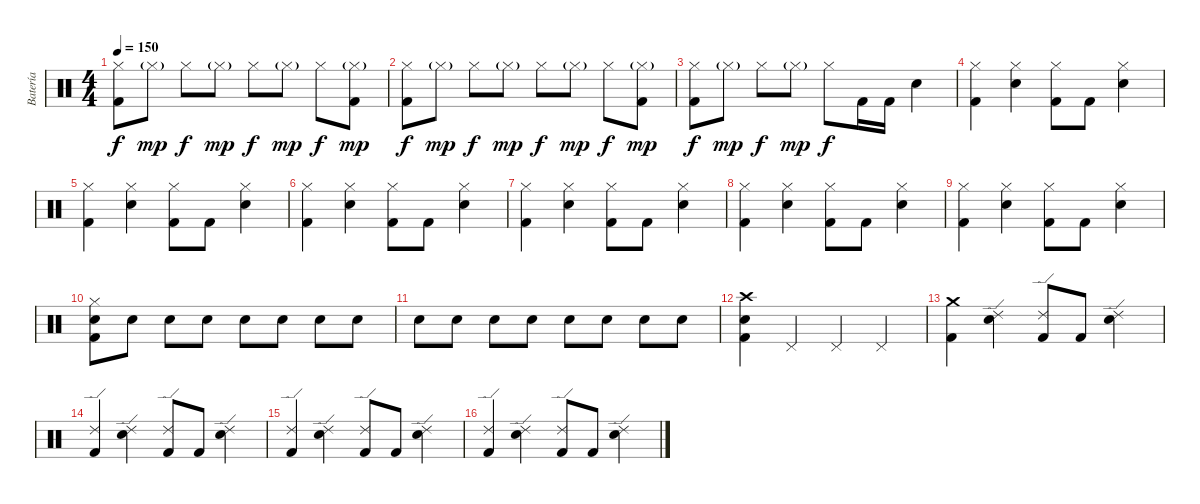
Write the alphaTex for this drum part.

\track ("Batería" "Batería") {instrument percussion}
\staff {score}
\articulation defaults
\ts (4 4)
\tempo 150
\clef neutral
\ks c
("Hi-Hat (closed)" "Kick (hit) 2").8{dy f} "Hi-Hat (closed)"{g}.8{dy mp} "Hi-Hat (closed)".8{dy f} "Hi-Hat (closed)"{g}.8{dy mp} "Hi-Hat (closed)".8{dy f} "Hi-Hat (closed)"{g}.8{dy mp} "Hi-Hat (closed)".8{dy f} ("Hi-Hat (closed)"{g} "Kick (hit) 2").8{dy mp} |
("Hi-Hat (closed)" "Kick (hit) 2").8{dy f} "Hi-Hat (closed)"{g}.8{dy mp} "Hi-Hat (closed)".8{dy f} "Hi-Hat (closed)"{g}.8{dy mp} "Hi-Hat (closed)".8{dy f} "Hi-Hat (closed)"{g}.8{dy mp} "Hi-Hat (closed)".8{dy f} ("Hi-Hat (closed)"{g} "Kick (hit) 2").8{dy mp} |
("Hi-Hat (closed)" "Kick (hit) 2").8{dy f} "Hi-Hat (closed)"{g}.8{dy mp} "Hi-Hat (closed)".8{dy f} "Hi-Hat (closed)"{g}.8{dy mp} "Hi-Hat (closed)".8{dy f} "Kick (hit) 2".16 "Kick (hit) 2".16 "Electric Snare (hit)".4 |
("Hi-Hat (closed)" "Kick (hit) 2").4 ("Hi-Hat (closed)" "Electric Snare (hit)").4 ("Hi-Hat (closed)" "Kick (hit) 2").8 "Kick (hit) 2".8 ("Hi-Hat (closed)" "Electric Snare (hit)").4 |
("Hi-Hat (closed)" "Kick (hit) 2").4 ("Hi-Hat (closed)" "Electric Snare (hit)").4 ("Hi-Hat (closed)" "Kick (hit) 2").8 "Kick (hit) 2".8 ("Hi-Hat (closed)" "Electric Snare (hit)").4 |
("Hi-Hat (closed)" "Kick (hit) 2").4 ("Hi-Hat (closed)" "Electric Snare (hit)").4 ("Hi-Hat (closed)" "Kick (hit) 2").8 "Kick (hit) 2".8 ("Hi-Hat (closed)" "Electric Snare (hit)").4 |
("Hi-Hat (closed)" "Kick (hit) 2").4 ("Hi-Hat (closed)" "Electric Snare (hit)").4 ("Hi-Hat (closed)" "Kick (hit) 2").8 "Kick (hit) 2".8 ("Hi-Hat (closed)" "Electric Snare (hit)").4 |
("Hi-Hat (closed)" "Kick (hit) 2").4 ("Hi-Hat (closed)" "Electric Snare (hit)").4 ("Hi-Hat (closed)" "Kick (hit) 2").8 "Kick (hit) 2".8 ("Hi-Hat (closed)" "Electric Snare (hit)").4 |
("Hi-Hat (closed)" "Kick (hit) 2").4 ("Hi-Hat (closed)" "Electric Snare (hit)").4 ("Hi-Hat (closed)" "Kick (hit) 2").8 "Kick (hit) 2".8 ("Hi-Hat (closed)" "Electric Snare (hit)").4 |
("Hi-Hat (closed)" "Electric Snare (hit)" "Kick (hit) 2").8 "Electric Snare (hit)".8{volume 0} "Electric Snare (hit)".8{volume 13} "Electric Snare (hit)".8 "Electric Snare (hit)".8 "Electric Snare (hit)".8 "Electric Snare (hit)".8 "Electric Snare (hit)".8 |
"Electric Snare (hit)".8 "Electric Snare (hit)".8 "Electric Snare (hit)".8 "Electric Snare (hit)".8 "Electric Snare (hit)".8 "Electric Snare (hit)".8 "Electric Snare (hit)".8 "Electric Snare (hit)".8 |
("Crash high (hit)" "Electric Snare (hit)" "Kick (hit) 2").4 "Pedal Hi-Hat (hit)".4 "Pedal Hi-Hat (hit)".4 "Pedal Hi-Hat (hit)".4 |
("Crash medium (hit)" "Kick (hit) 2").4 ("Ride (edge) 2" "Electric Snare (hit)").4 ("Ride (edge) 2" "Kick (hit) 2").8 "Kick (hit) 2".8 ("Ride (edge) 2" "Electric Snare (hit)").4 |
("Ride (edge) 2" "Kick (hit) 2").4 ("Ride (edge) 2" "Electric Snare (hit)").4 ("Ride (edge) 2" "Kick (hit) 2").8 "Kick (hit) 2".8 ("Ride (edge) 2" "Electric Snare (hit)").4 |
("Ride (edge) 2" "Kick (hit) 2").4 ("Ride (edge) 2" "Electric Snare (hit)").4 ("Ride (edge) 2" "Kick (hit) 2").8 "Kick (hit) 2".8 ("Ride (edge) 2" "Electric Snare (hit)").4 |
("Ride (edge) 2" "Kick (hit) 2").4 ("Ride (edge) 2" "Electric Snare (hit)").4 ("Ride (edge) 2" "Kick (hit) 2").8 "Kick (hit) 2".8 ("Ride (edge) 2" "Electric Snare (hit)").4
